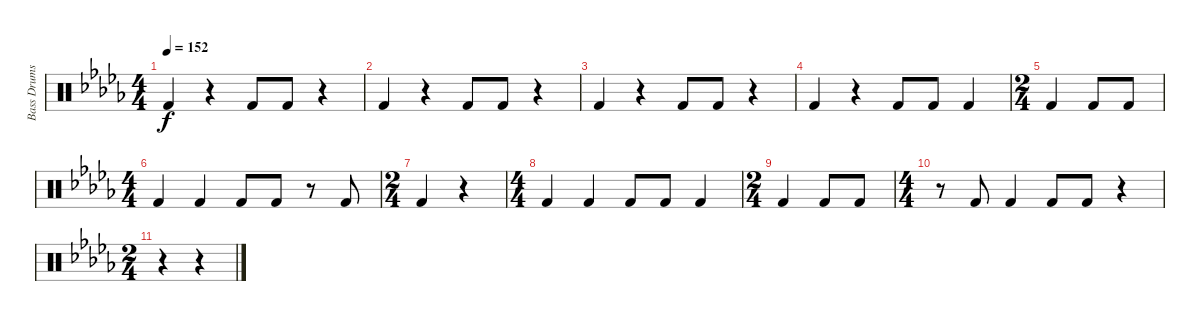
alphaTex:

\track ("Bass Drums" "Bass Drums") {instrument percussion}
\staff {score}
\articulation defaults
\ts (4 4)
\tempo 152
\clef neutral
\ks db "Kick (hit) 2".4{dy f}
r.4 "Kick (hit) 2".8 "Kick (hit) 2".8 r.4 |
"Kick (hit) 2".4 r.4 "Kick (hit) 2".8 "Kick (hit) 2".8 r.4 |
"Kick (hit) 2".4 r.4 "Kick (hit) 2".8 "Kick (hit) 2".8 r.4 |
"Kick (hit) 2".4 r.4 "Kick (hit) 2".8 "Kick (hit) 2".8 "Kick (hit) 2".4 |
\ts (2 4)
"Kick (hit) 2".4 "Kick (hit) 2".8 "Kick (hit) 2".8 |
\ts (4 4)
"Kick (hit) 2".4 "Kick (hit) 2".4 "Kick (hit) 2".8 "Kick (hit) 2".8 r.8 "Kick (hit) 2".8 |
\ts (2 4)
"Kick (hit) 2".4 r.4 |
\ts (4 4)
"Kick (hit) 2".4 "Kick (hit) 2".4 "Kick (hit) 2".8 "Kick (hit) 2".8 "Kick (hit) 2".4 |
\ts (2 4)
"Kick (hit) 2".4 "Kick (hit) 2".8 "Kick (hit) 2".8 |
\ts (4 4)
r.8 "Kick (hit) 2".8 "Kick (hit) 2".4 "Kick (hit) 2".8 "Kick (hit) 2".8 r.4 |
\ts (2 4)
r.4 r.4
